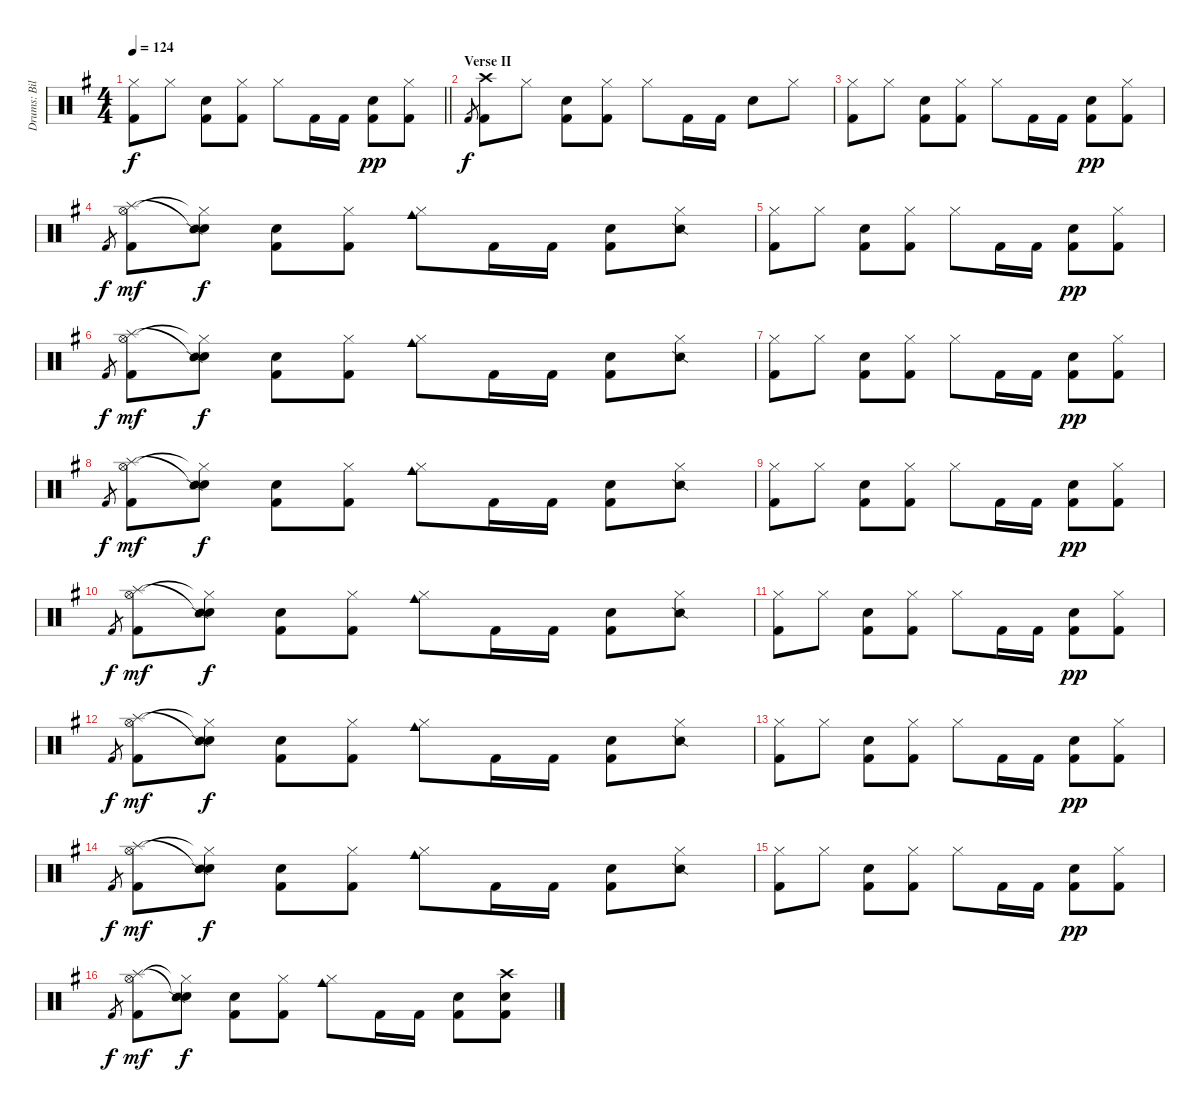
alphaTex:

\track ("Drums: Bill" "Drums: Bil") {instrument percussion}
\staff {score}
\articulation defaults
\ts (4 4)
\tempo 124
\clef neutral
\barLineRight lightlight
\ks g
("Hi-Hat (closed)" "Kick (hit) 2").8{dy f} "Hi-Hat (closed)".8 ("Electric Snare (hit)" "Kick (hit) 2").8 ("Hi-Hat (closed)" "Kick (hit) 2").8 "Hi-Hat (closed)".8 "Kick (hit) 2".16 "Kick (hit) 2".16 ("Electric Snare (hit)" "Kick (hit) 2").8{dy pp} ("Hi-Hat (closed)" "Kick (hit) 2").8 |
\section ("" "Verse II")
"Kick (hit) 2".8{gr dy f} ("Crash high (hit)" "Kick (hit) 2").8 "Hi-Hat (closed)".8 ("Electric Snare (hit)" "Kick (hit) 2").8 ("Hi-Hat (closed)" "Kick (hit) 2").8 "Hi-Hat (closed)".8 "Kick (hit) 2".16 "Kick (hit) 2".16 "Electric Snare (hit)".8 "Hi-Hat (closed)".8 |
("Hi-Hat (closed)" "Kick (hit) 2").8 "Hi-Hat (closed)".8 ("Electric Snare (hit)" "Kick (hit) 2").8 ("Hi-Hat (closed)" "Kick (hit) 2").8 "Hi-Hat (closed)".8 "Kick (hit) 2".16 "Kick (hit) 2".16 ("Electric Snare (hit)" "Kick (hit) 2").8{dy pp} ("Hi-Hat (closed)" "Kick (hit) 2").8 |
"Kick (hit) 2".8{gr dy f} ("Splash (hit)" "Hi-Hat (open)" "Kick (hit) 2").8{dy mf} ("Snare (hit)"{t} "Hi-Hat (closed)"{t} "Snare (side stick) 2").8{dy f} ("Electric Snare (hit)" "Kick (hit) 2").8 ("Hi-Hat (closed)" "Kick (hit) 2").8 ("Hi-Hat (closed)" "Cowbell medium (hit)").8 "Kick (hit) 2".16 "Kick (hit) 2".16 ("Electric Snare (hit)" "Kick (hit) 2").8 ("Hi-Hat (closed)" "Snare (side stick) 2").8 |
("Hi-Hat (closed)" "Kick (hit) 2").8 "Hi-Hat (closed)".8 ("Electric Snare (hit)" "Kick (hit) 2").8 ("Hi-Hat (closed)" "Kick (hit) 2").8 "Hi-Hat (closed)".8 "Kick (hit) 2".16 "Kick (hit) 2".16 ("Electric Snare (hit)" "Kick (hit) 2").8{dy pp} ("Hi-Hat (closed)" "Kick (hit) 2").8 |
"Kick (hit) 2".8{gr dy f} ("Splash (hit)" "Hi-Hat (open)" "Kick (hit) 2").8{dy mf} ("Snare (hit)"{t} "Hi-Hat (closed)"{t} "Snare (side stick) 2").8{dy f} ("Electric Snare (hit)" "Kick (hit) 2").8 ("Hi-Hat (closed)" "Kick (hit) 2").8 ("Hi-Hat (closed)" "Cowbell medium (hit)").8 "Kick (hit) 2".16 "Kick (hit) 2".16 ("Electric Snare (hit)" "Kick (hit) 2").8 ("Hi-Hat (closed)" "Snare (side stick) 2").8 |
("Hi-Hat (closed)" "Kick (hit) 2").8 "Hi-Hat (closed)".8 ("Electric Snare (hit)" "Kick (hit) 2").8 ("Hi-Hat (closed)" "Kick (hit) 2").8 "Hi-Hat (closed)".8 "Kick (hit) 2".16 "Kick (hit) 2".16 ("Electric Snare (hit)" "Kick (hit) 2").8{dy pp} ("Hi-Hat (closed)" "Kick (hit) 2").8 |
"Kick (hit) 2".8{gr dy f} ("Splash (hit)" "Hi-Hat (open)" "Kick (hit) 2").8{dy mf} ("Snare (hit)"{t} "Hi-Hat (closed)"{t} "Snare (side stick) 2").8{dy f} ("Electric Snare (hit)" "Kick (hit) 2").8 ("Hi-Hat (closed)" "Kick (hit) 2").8 ("Hi-Hat (closed)" "Cowbell medium (hit)").8 "Kick (hit) 2".16 "Kick (hit) 2".16 ("Electric Snare (hit)" "Kick (hit) 2").8 ("Hi-Hat (closed)" "Snare (side stick) 2").8 |
("Hi-Hat (closed)" "Kick (hit) 2").8 "Hi-Hat (closed)".8 ("Electric Snare (hit)" "Kick (hit) 2").8 ("Hi-Hat (closed)" "Kick (hit) 2").8 "Hi-Hat (closed)".8 "Kick (hit) 2".16 "Kick (hit) 2".16 ("Electric Snare (hit)" "Kick (hit) 2").8{dy pp} ("Hi-Hat (closed)" "Kick (hit) 2").8 |
"Kick (hit) 2".8{gr dy f} ("Splash (hit)" "Hi-Hat (open)" "Kick (hit) 2").8{dy mf} ("Snare (hit)"{t} "Hi-Hat (closed)"{t} "Snare (side stick) 2").8{dy f} ("Electric Snare (hit)" "Kick (hit) 2").8 ("Hi-Hat (closed)" "Kick (hit) 2").8 ("Hi-Hat (closed)" "Cowbell medium (hit)").8 "Kick (hit) 2".16 "Kick (hit) 2".16 ("Electric Snare (hit)" "Kick (hit) 2").8 ("Hi-Hat (closed)" "Snare (side stick) 2").8 |
("Hi-Hat (closed)" "Kick (hit) 2").8 "Hi-Hat (closed)".8 ("Electric Snare (hit)" "Kick (hit) 2").8 ("Hi-Hat (closed)" "Kick (hit) 2").8 "Hi-Hat (closed)".8 "Kick (hit) 2".16 "Kick (hit) 2".16 ("Electric Snare (hit)" "Kick (hit) 2").8{dy pp} ("Hi-Hat (closed)" "Kick (hit) 2").8 |
"Kick (hit) 2".8{gr dy f} ("Splash (hit)" "Hi-Hat (open)" "Kick (hit) 2").8{dy mf} ("Snare (hit)"{t} "Hi-Hat (closed)"{t} "Snare (side stick) 2").8{dy f} ("Electric Snare (hit)" "Kick (hit) 2").8 ("Hi-Hat (closed)" "Kick (hit) 2").8 ("Hi-Hat (closed)" "Cowbell medium (hit)").8 "Kick (hit) 2".16 "Kick (hit) 2".16 ("Electric Snare (hit)" "Kick (hit) 2").8 ("Hi-Hat (closed)" "Snare (side stick) 2").8 |
("Hi-Hat (closed)" "Kick (hit) 2").8 "Hi-Hat (closed)".8 ("Electric Snare (hit)" "Kick (hit) 2").8 ("Hi-Hat (closed)" "Kick (hit) 2").8 "Hi-Hat (closed)".8 "Kick (hit) 2".16 "Kick (hit) 2".16 ("Electric Snare (hit)" "Kick (hit) 2").8{dy pp} ("Hi-Hat (closed)" "Kick (hit) 2").8 |
"Kick (hit) 2".8{gr dy f} ("Splash (hit)" "Hi-Hat (open)" "Kick (hit) 2").8{dy mf} ("Snare (hit)"{t} "Hi-Hat (closed)"{t} "Snare (side stick) 2").8{dy f} ("Electric Snare (hit)" "Kick (hit) 2").8 ("Hi-Hat (closed)" "Kick (hit) 2").8 ("Hi-Hat (closed)" "Cowbell medium (hit)").8 "Kick (hit) 2".16 "Kick (hit) 2".16 ("Electric Snare (hit)" "Kick (hit) 2").8 ("Hi-Hat (closed)" "Snare (side stick) 2").8 |
("Hi-Hat (closed)" "Kick (hit) 2").8 "Hi-Hat (closed)".8 ("Electric Snare (hit)" "Kick (hit) 2").8 ("Hi-Hat (closed)" "Kick (hit) 2").8 "Hi-Hat (closed)".8 "Kick (hit) 2".16 "Kick (hit) 2".16 ("Electric Snare (hit)" "Kick (hit) 2").8{dy pp} ("Hi-Hat (closed)" "Kick (hit) 2").8 |
"Kick (hit) 2".8{gr dy f} ("Splash (hit)" "Hi-Hat (open)" "Kick (hit) 2").8{dy mf} ("Snare (hit)"{t} "Hi-Hat (closed)"{t} "Snare (side stick) 2").8{dy f} ("Electric Snare (hit)" "Kick (hit) 2").8 ("Hi-Hat (closed)" "Kick (hit) 2").8 ("Hi-Hat (closed)" "Cowbell medium (hit)").8 "Kick (hit) 2".16 "Kick (hit) 2".16 ("Electric Snare (hit)" "Kick (hit) 2").8 ("Crash high (hit)" "Electric Snare (hit)" "Kick (hit) 2").8
